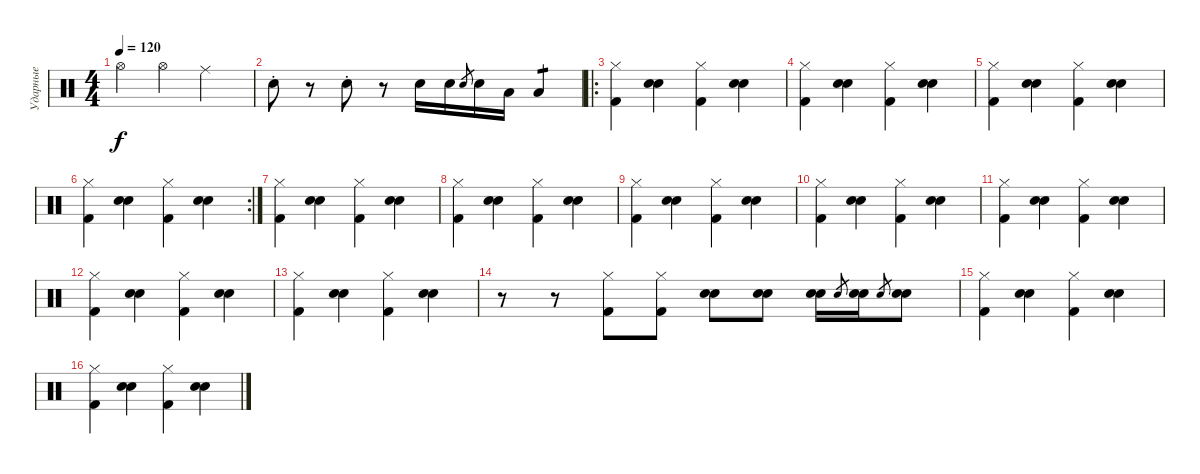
\track ("Ударные" "Ударные") {instrument percussion}
\staff {score}
\articulation defaults
\ts (4 4)
\tempo 120
\clef neutral
\ks c "Hi-Hat (open)".4{dy f} "Hi-Hat (open)".4 "Ride (middle)".2
|
"Electric Snare (hit)"{st}.8 r.8 "Snare (hit) 2"{st}.8 r.8 "Electric Snare (hit)".16 "Snare (hit) 2".16 "Snare (hit) 2".8{gr} "Snare (hit) 2".16 "Low Floor Tom (hit)".16 "Low Floor Tom (hit)".4{tp 1} |
\ro
("Hi-Hat (closed)" "Kick (hit) 2").4 ("Snare (hit) 2" "Electric Snare (hit)").4 ("Hi-Hat (closed)" "Kick (hit) 2").4 ("Snare (hit) 2" "Electric Snare (hit)").4 |
("Hi-Hat (closed)" "Kick (hit) 2").4 ("Snare (hit) 2" "Electric Snare (hit)").4 ("Hi-Hat (closed)" "Kick (hit) 2").4 ("Snare (hit) 2" "Electric Snare (hit)").4 |
("Hi-Hat (closed)" "Kick (hit) 2").4 ("Snare (hit) 2" "Electric Snare (hit)").4 ("Hi-Hat (closed)" "Kick (hit) 2").4 ("Snare (hit) 2" "Electric Snare (hit)").4 |
\rc 2
("Hi-Hat (closed)" "Kick (hit) 2").4 ("Snare (hit) 2" "Electric Snare (hit)").4 ("Hi-Hat (closed)" "Kick (hit) 2").4 ("Snare (hit) 2" "Electric Snare (hit)").4 |
("Hi-Hat (closed)" "Kick (hit) 2").4 ("Snare (hit) 2" "Electric Snare (hit)").4 ("Hi-Hat (closed)" "Kick (hit) 2").4 ("Snare (hit) 2" "Electric Snare (hit)").4 |
("Hi-Hat (closed)" "Kick (hit) 2").4 ("Snare (hit) 2" "Electric Snare (hit)").4 ("Hi-Hat (closed)" "Kick (hit) 2").4 ("Snare (hit) 2" "Electric Snare (hit)").4 |
("Hi-Hat (closed)" "Kick (hit) 2").4 ("Snare (hit) 2" "Electric Snare (hit)").4 ("Hi-Hat (closed)" "Kick (hit) 2").4 ("Snare (hit) 2" "Electric Snare (hit)").4 |
("Hi-Hat (closed)" "Kick (hit) 2").4 ("Snare (hit) 2" "Electric Snare (hit)").4 ("Hi-Hat (closed)" "Kick (hit) 2").4 ("Snare (hit) 2" "Electric Snare (hit)").4 |
("Hi-Hat (closed)" "Kick (hit) 2").4 ("Snare (hit) 2" "Electric Snare (hit)").4 ("Hi-Hat (closed)" "Kick (hit) 2").4 ("Snare (hit) 2" "Electric Snare (hit)").4 |
("Hi-Hat (closed)" "Kick (hit) 2").4 ("Snare (hit) 2" "Electric Snare (hit)").4 ("Hi-Hat (closed)" "Kick (hit) 2").4 ("Snare (hit) 2" "Electric Snare (hit)").4 |
("Hi-Hat (closed)" "Kick (hit) 2").4 ("Snare (hit) 2" "Electric Snare (hit)").4 ("Hi-Hat (closed)" "Kick (hit) 2").4 ("Snare (hit) 2" "Electric Snare (hit)").4 |
r.8 r.8 ("Hi-Hat (closed)" "Kick (hit) 2").8 ("Hi-Hat (closed)" "Kick (hit) 2").8 ("Snare (hit) 2" "Electric Snare (hit)").8 ("Snare (hit) 2" "Electric Snare (hit)").8 ("Snare (hit) 2" "Electric Snare (hit)").16 "Snare (hit) 2".8{gr} ("Snare (hit) 2" "Electric Snare (hit)").16 "Snare (hit) 2".8{gr} ("Snare (hit) 2" "Electric Snare (hit)").8 |
("Hi-Hat (closed)" "Kick (hit) 2").4 ("Snare (hit) 2" "Electric Snare (hit)").4 ("Hi-Hat (closed)" "Kick (hit) 2").4 ("Snare (hit) 2" "Electric Snare (hit)").4 |
("Hi-Hat (closed)" "Kick (hit) 2").4 ("Snare (hit) 2" "Electric Snare (hit)").4 ("Hi-Hat (closed)" "Kick (hit) 2").4 ("Snare (hit) 2" "Electric Snare (hit)").4
